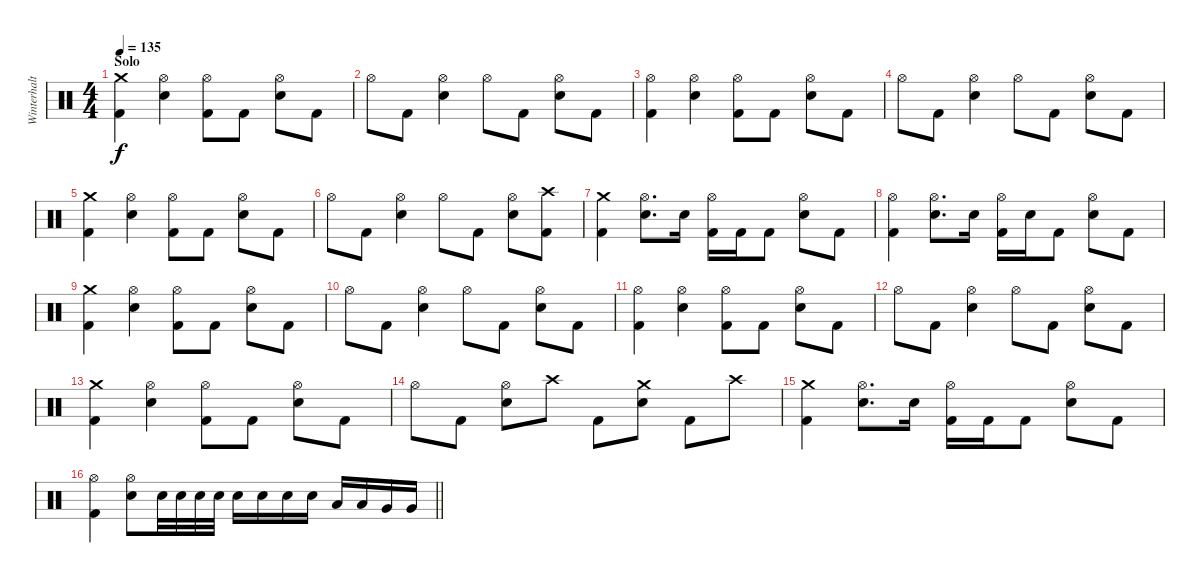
\track ("Winterhalter" "Winterhalt") {instrument percussion}
\staff {score}
\articulation defaults
\ts (4 4)
\section ("" "Solo")
\tempo 135
\clef neutral
\ks c
("Crash medium (hit)" "Kick (hit) 2").4{dy f} ("Hi-Hat (open)" "Snare (hit) 2").4 ("Hi-Hat (open)" "Kick (hit) 2").8 "Kick (hit) 2".8 ("Hi-Hat (open)" "Snare (hit) 2").8 "Kick (hit) 2".8 |
"Hi-Hat (open)".8 "Kick (hit) 2".8 ("Hi-Hat (open)" "Snare (hit) 2").4 "Hi-Hat (open)".8 "Kick (hit) 2".8 ("Hi-Hat (open)" "Snare (hit) 2").8 "Kick (hit) 2".8 |
("Hi-Hat (open)" "Kick (hit) 2").4 ("Hi-Hat (open)" "Snare (hit) 2").4 ("Hi-Hat (open)" "Kick (hit) 2").8 "Kick (hit) 2".8 ("Hi-Hat (open)" "Snare (hit) 2").8 "Kick (hit) 2".8 |
"Hi-Hat (open)".8 "Kick (hit) 2".8 ("Hi-Hat (open)" "Snare (hit) 2").4 "Hi-Hat (open)".8 "Kick (hit) 2".8 ("Hi-Hat (open)" "Snare (hit) 2").8 "Kick (hit) 2".8 |
("Crash medium (hit)" "Kick (hit) 2").4 ("Hi-Hat (open)" "Snare (hit) 2").4 ("Hi-Hat (open)" "Kick (hit) 2").8 "Kick (hit) 2".8 ("Hi-Hat (open)" "Snare (hit) 2").8 "Kick (hit) 2".8 |
"Hi-Hat (open)".8 "Kick (hit) 2".8 ("Hi-Hat (open)" "Snare (hit) 2").4 "Hi-Hat (open)".8 "Kick (hit) 2".8 ("Hi-Hat (open)" "Snare (hit) 2").8 ("Crash high (hit)" "Kick (hit) 2").8 |
("Crash medium (hit)" "Kick (hit) 2").4 ("Hi-Hat (open)" "Snare (hit) 2").8{d} "Snare (hit) 2".16 ("Hi-Hat (open)" "Kick (hit) 2").16 "Kick (hit) 2".16 "Kick (hit) 2".8 ("Hi-Hat (open)" "Snare (hit) 2").8 "Kick (hit) 2".8 |
("Hi-Hat (open)" "Kick (hit) 2").4 ("Hi-Hat (open)" "Snare (hit) 2").8{d} "Snare (hit) 2".16 ("Hi-Hat (open)" "Kick (hit) 2").16 "Snare (hit) 2".16 "Kick (hit) 2".8 ("Hi-Hat (open)" "Snare (hit) 2").8 "Kick (hit) 2".8 |
("Crash medium (hit)" "Kick (hit) 2").4 ("Hi-Hat (open)" "Snare (hit) 2").4 ("Hi-Hat (open)" "Kick (hit) 2").8 "Kick (hit) 2".8 ("Hi-Hat (open)" "Snare (hit) 2").8 "Kick (hit) 2".8 |
"Hi-Hat (open)".8 "Kick (hit) 2".8 ("Hi-Hat (open)" "Snare (hit) 2").4 "Hi-Hat (open)".8 "Kick (hit) 2".8 ("Hi-Hat (open)" "Snare (hit) 2").8 "Kick (hit) 2".8 |
("Hi-Hat (open)" "Kick (hit) 2").4 ("Hi-Hat (open)" "Snare (hit) 2").4 ("Hi-Hat (open)" "Kick (hit) 2").8 "Kick (hit) 2".8 ("Hi-Hat (open)" "Snare (hit) 2").8 "Kick (hit) 2".8 |
"Hi-Hat (open)".8 "Kick (hit) 2".8 ("Hi-Hat (open)" "Snare (hit) 2").4 "Hi-Hat (open)".8 "Kick (hit) 2".8 ("Hi-Hat (open)" "Snare (hit) 2").8 "Kick (hit) 2".8 |
("Crash medium (hit)" "Kick (hit) 2").4 ("Hi-Hat (open)" "Snare (hit) 2").4 ("Hi-Hat (open)" "Kick (hit) 2").8 "Kick (hit) 2".8 ("Hi-Hat (open)" "Snare (hit) 2").8 "Kick (hit) 2".8 |
"Hi-Hat (open)".8 "Kick (hit) 2".8 ("Hi-Hat (open)" "Snare (hit) 2").8 "Crash high (hit)".8 "Kick (hit) 2".8 ("Crash medium (hit)" "Snare (hit) 2").8 "Kick (hit) 2".8 "Crash high (hit)".8 |
("Crash medium (hit)" "Kick (hit) 2").4 ("Hi-Hat (open)" "Snare (hit) 2").8{d} "Snare (hit) 2".16 ("Hi-Hat (open)" "Kick (hit) 2").16 "Kick (hit) 2".16 "Kick (hit) 2".8 ("Hi-Hat (open)" "Snare (hit) 2").8 "Kick (hit) 2".8 |
\barLineRight lightlight
("Hi-Hat (open)" "Kick (hit) 2").4 ("Hi-Hat (open)" "Snare (hit) 2").8 "Snare (hit) 2".32 "Snare (hit) 2".32 "Snare (hit) 2".32 "Snare (hit) 2".32 "Snare (hit) 2".16 "Snare (hit) 2".16 "Snare (hit) 2".16 "Snare (hit) 2".16 "Low Tom (hit)".16 "Low Tom (hit)".16 "Very Low Tom (hit)".16 "Very Low Tom (hit)".16
